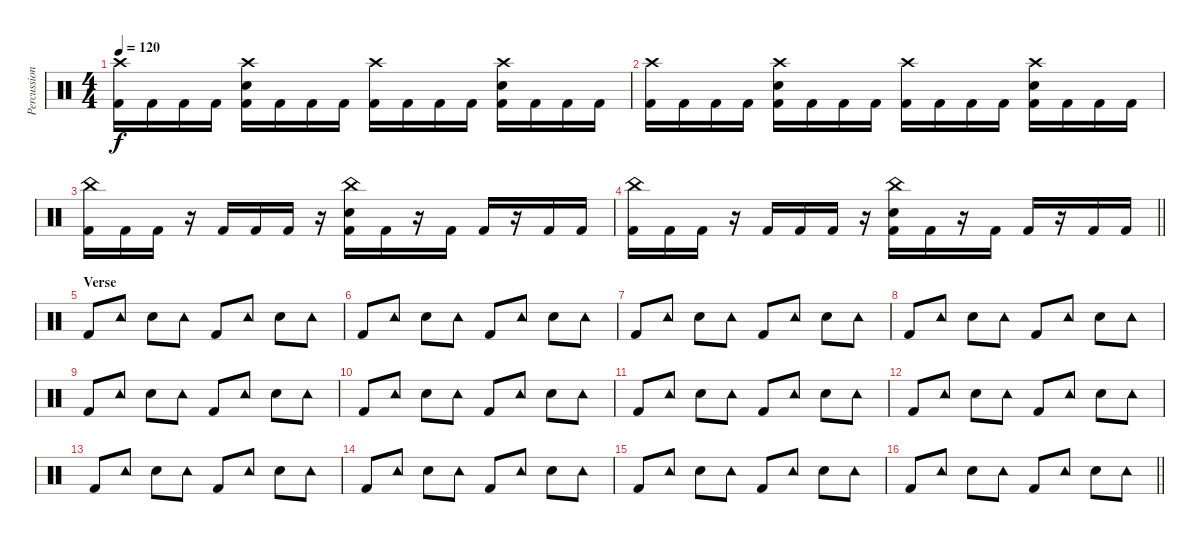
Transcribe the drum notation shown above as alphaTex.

\track ("Percussion" "Percussion") {instrument percussion}
\staff {score}
\articulation defaults
\ts (4 4)
\tempo 120
\clef neutral
\ks c
("Crash high (hit)" "Kick (hit) 2").16{dy f} "Kick (hit) 2".16 "Kick (hit) 2".16 "Kick (hit) 2".16 ("Snare (hit) 2" "Crash high (hit)" "Kick (hit) 2").16 "Kick (hit) 2".16 "Kick (hit) 2".16 "Kick (hit) 2".16 ("Crash high (hit)" "Kick (hit) 2").16 "Kick (hit) 2".16 "Kick (hit) 2".16 "Kick (hit) 2".16 ("Snare (hit) 2" "Crash high (hit)" "Kick (hit) 2").16 "Kick (hit) 2".16 "Kick (hit) 2".16 "Kick (hit) 2".16 |
("Crash high (hit)" "Kick (hit) 2").16 "Kick (hit) 2".16 "Kick (hit) 2".16 "Kick (hit) 2".16 ("Snare (hit) 2" "Crash high (hit)" "Kick (hit) 2").16 "Kick (hit) 2".16 "Kick (hit) 2".16 "Kick (hit) 2".16 ("Crash high (hit)" "Kick (hit) 2").16 "Kick (hit) 2".16 "Kick (hit) 2".16 "Kick (hit) 2".16 ("Snare (hit) 2" "Crash high (hit)" "Kick (hit) 2").16 "Kick (hit) 2".16 "Kick (hit) 2".16 "Kick (hit) 2".16 |
("China (hit)" "Kick (hit) 2").16 "Kick (hit) 2".16 "Kick (hit) 2".16 r.16 "Kick (hit) 2".16 "Kick (hit) 2".16 "Kick (hit) 2".16 r.16 ("Snare (hit) 2" "China (hit)" "Kick (hit) 2").16 "Kick (hit) 2".16 r.16 "Kick (hit) 2".16 "Kick (hit) 2".16 r.16 "Kick (hit) 2".16 "Kick (hit) 2".16 |
\barLineRight lightlight
("China (hit)" "Kick (hit) 2").16 "Kick (hit) 2".16 "Kick (hit) 2".16 r.16 "Kick (hit) 2".16 "Kick (hit) 2".16 "Kick (hit) 2".16 r.16 ("Snare (hit) 2" "China (hit)" "Kick (hit) 2").16 "Kick (hit) 2".16 r.16 "Kick (hit) 2".16 "Kick (hit) 2".16 r.16 "Kick (hit) 2".16 "Kick (hit) 2".16 |
\section ("" "Verse")
"Kick (hit) 2".8 "Tambourine (hit)".8 "Hand Clap (hit)".8 "Tambourine (hit)".8 "Kick (hit) 2".8 "Tambourine (hit)".8 "Hand Clap (hit)".8 "Tambourine (hit)".8 |
"Kick (hit) 2".8 "Tambourine (hit)".8 "Hand Clap (hit)".8 "Tambourine (hit)".8 "Kick (hit) 2".8 "Tambourine (hit)".8 "Hand Clap (hit)".8 "Tambourine (hit)".8 |
"Kick (hit) 2".8 "Tambourine (hit)".8 "Hand Clap (hit)".8 "Tambourine (hit)".8 "Kick (hit) 2".8 "Tambourine (hit)".8 "Hand Clap (hit)".8 "Tambourine (hit)".8 |
"Kick (hit) 2".8 "Tambourine (hit)".8 "Hand Clap (hit)".8 "Tambourine (hit)".8 "Kick (hit) 2".8 "Tambourine (hit)".8 "Hand Clap (hit)".8 "Tambourine (hit)".8 |
"Kick (hit) 2".8 "Tambourine (hit)".8 "Hand Clap (hit)".8 "Tambourine (hit)".8 "Kick (hit) 2".8 "Tambourine (hit)".8 "Hand Clap (hit)".8 "Tambourine (hit)".8 |
"Kick (hit) 2".8 "Tambourine (hit)".8 "Hand Clap (hit)".8 "Tambourine (hit)".8 "Kick (hit) 2".8 "Tambourine (hit)".8 "Hand Clap (hit)".8 "Tambourine (hit)".8 |
"Kick (hit) 2".8 "Tambourine (hit)".8 "Hand Clap (hit)".8 "Tambourine (hit)".8 "Kick (hit) 2".8 "Tambourine (hit)".8 "Hand Clap (hit)".8 "Tambourine (hit)".8 |
"Kick (hit) 2".8 "Tambourine (hit)".8 "Hand Clap (hit)".8 "Tambourine (hit)".8 "Kick (hit) 2".8 "Tambourine (hit)".8 "Hand Clap (hit)".8 "Tambourine (hit)".8 |
"Kick (hit) 2".8 "Tambourine (hit)".8 "Hand Clap (hit)".8 "Tambourine (hit)".8 "Kick (hit) 2".8 "Tambourine (hit)".8 "Hand Clap (hit)".8 "Tambourine (hit)".8 |
"Kick (hit) 2".8 "Tambourine (hit)".8 "Hand Clap (hit)".8 "Tambourine (hit)".8 "Kick (hit) 2".8 "Tambourine (hit)".8 "Hand Clap (hit)".8 "Tambourine (hit)".8 |
"Kick (hit) 2".8 "Tambourine (hit)".8 "Hand Clap (hit)".8 "Tambourine (hit)".8 "Kick (hit) 2".8 "Tambourine (hit)".8 "Hand Clap (hit)".8 "Tambourine (hit)".8 |
\barLineRight lightlight "Kick (hit) 2".8 "Tambourine (hit)".8 "Hand Clap (hit)".8 "Tambourine (hit)".8 "Kick (hit) 2".8 "Tambourine (hit)".8 "Hand Clap (hit)".8 "Tambourine (hit)".8
